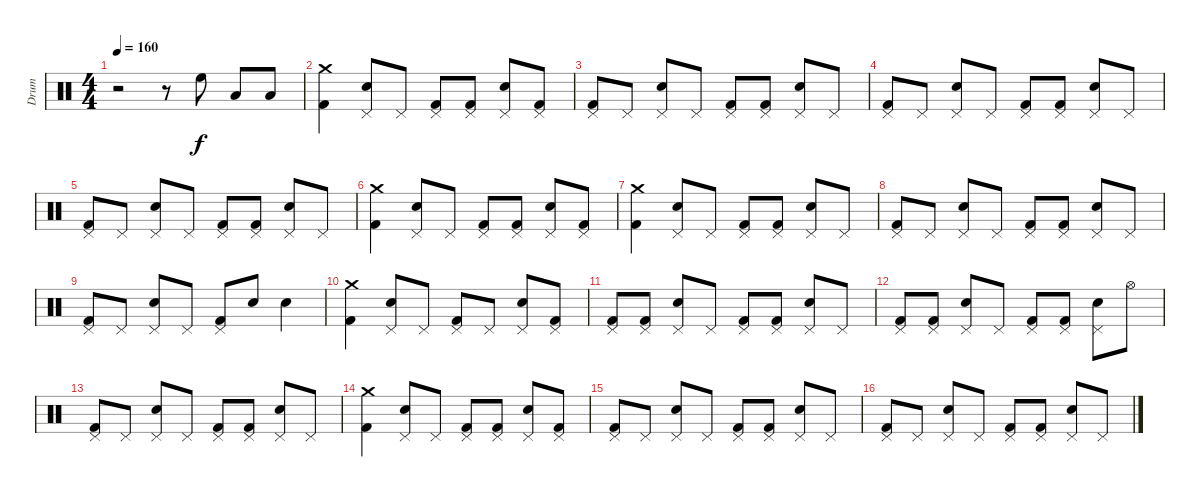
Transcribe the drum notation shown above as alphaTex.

\track ("Drum" "Drum") {instrument percussion}
\staff {score}
\articulation defaults
\ts (4 4)
\tempo 160
\clef neutral
\ks c
r.2{dy f} r.8 "High Floor Tom (hit)".8 "Low Tom (hit)".8 "Low Tom (hit)".8 |
("Crash medium (hit)" "Kick (hit) 2").4 ("Pedal Hi-Hat (hit)" "Electric Snare (hit)").8 "Pedal Hi-Hat (hit)".8 ("Pedal Hi-Hat (hit)" "Kick (hit) 2").8 ("Pedal Hi-Hat (hit)" "Kick (hit) 2").8 ("Pedal Hi-Hat (hit)" "Electric Snare (hit)").8 ("Pedal Hi-Hat (hit)" "Kick (hit) 2").8 |
("Pedal Hi-Hat (hit)" "Kick (hit) 2").8 "Pedal Hi-Hat (hit)".8 ("Pedal Hi-Hat (hit)" "Electric Snare (hit)").8 "Pedal Hi-Hat (hit)".8 ("Pedal Hi-Hat (hit)" "Kick (hit) 2").8 ("Pedal Hi-Hat (hit)" "Kick (hit) 2").8 ("Pedal Hi-Hat (hit)" "Electric Snare (hit)").8 "Pedal Hi-Hat (hit)".8 |
("Pedal Hi-Hat (hit)" "Kick (hit) 2").8 "Pedal Hi-Hat (hit)".8 ("Pedal Hi-Hat (hit)" "Electric Snare (hit)").8 "Pedal Hi-Hat (hit)".8 ("Pedal Hi-Hat (hit)" "Kick (hit) 2").8 ("Pedal Hi-Hat (hit)" "Kick (hit) 2").8 ("Pedal Hi-Hat (hit)" "Electric Snare (hit)").8 "Pedal Hi-Hat (hit)".8 |
("Pedal Hi-Hat (hit)" "Kick (hit) 2").8 "Pedal Hi-Hat (hit)".8 ("Pedal Hi-Hat (hit)" "Electric Snare (hit)").8 "Pedal Hi-Hat (hit)".8 ("Pedal Hi-Hat (hit)" "Kick (hit) 2").8 ("Pedal Hi-Hat (hit)" "Kick (hit) 2").8 ("Pedal Hi-Hat (hit)" "Electric Snare (hit)").8 "Pedal Hi-Hat (hit)".8 |
("Crash medium (hit)" "Kick (hit) 2").4 ("Pedal Hi-Hat (hit)" "Electric Snare (hit)").8 "Pedal Hi-Hat (hit)".8 ("Pedal Hi-Hat (hit)" "Kick (hit) 2").8 ("Pedal Hi-Hat (hit)" "Kick (hit) 2").8 ("Pedal Hi-Hat (hit)" "Electric Snare (hit)").8 ("Pedal Hi-Hat (hit)" "Kick (hit) 2").8 |
("Crash medium (hit)" "Kick (hit) 2").4 ("Pedal Hi-Hat (hit)" "Electric Snare (hit)").8 "Pedal Hi-Hat (hit)".8 ("Pedal Hi-Hat (hit)" "Kick (hit) 2").8 ("Pedal Hi-Hat (hit)" "Kick (hit) 2").8 ("Pedal Hi-Hat (hit)" "Electric Snare (hit)").8 "Pedal Hi-Hat (hit)".8 |
("Pedal Hi-Hat (hit)" "Kick (hit) 2").8 "Pedal Hi-Hat (hit)".8 ("Pedal Hi-Hat (hit)" "Electric Snare (hit)").8 "Pedal Hi-Hat (hit)".8 ("Pedal Hi-Hat (hit)" "Kick (hit) 2").8 ("Pedal Hi-Hat (hit)" "Kick (hit) 2").8 ("Pedal Hi-Hat (hit)" "Electric Snare (hit)").8 "Pedal Hi-Hat (hit)".8 |
("Pedal Hi-Hat (hit)" "Kick (hit) 2").8 "Pedal Hi-Hat (hit)".8 ("Pedal Hi-Hat (hit)" "Electric Snare (hit)").8 "Pedal Hi-Hat (hit)".8 ("Pedal Hi-Hat (hit)" "Kick (hit) 2").8 "Snare (hit) 2".8 "Electric Snare (hit)".4 |
("Crash medium (hit)" "Kick (hit) 2").4 ("Pedal Hi-Hat (hit)" "Electric Snare (hit)").8 "Pedal Hi-Hat (hit)".8 ("Pedal Hi-Hat (hit)" "Kick (hit) 2").8 "Pedal Hi-Hat (hit)".8 ("Pedal Hi-Hat (hit)" "Electric Snare (hit)").8 ("Pedal Hi-Hat (hit)" "Kick (hit) 2").8 |
("Pedal Hi-Hat (hit)" "Kick (hit) 2").8 ("Pedal Hi-Hat (hit)" "Kick (hit) 2").8 ("Pedal Hi-Hat (hit)" "Electric Snare (hit)").8 "Pedal Hi-Hat (hit)".8 ("Pedal Hi-Hat (hit)" "Kick (hit) 2").8 ("Pedal Hi-Hat (hit)" "Kick (hit) 2").8 ("Pedal Hi-Hat (hit)" "Electric Snare (hit)").8 "Pedal Hi-Hat (hit)".8 |
("Pedal Hi-Hat (hit)" "Kick (hit) 2").8 ("Pedal Hi-Hat (hit)" "Kick (hit) 2").8 ("Pedal Hi-Hat (hit)" "Electric Snare (hit)").8 "Pedal Hi-Hat (hit)".8 ("Pedal Hi-Hat (hit)" "Kick (hit) 2").8 ("Pedal Hi-Hat (hit)" "Kick (hit) 2").8 ("Pedal Hi-Hat (hit)" "Electric Snare (hit)").8 "Hi-Hat (open)".8 |
("Pedal Hi-Hat (hit)" "Kick (hit) 2").8 "Pedal Hi-Hat (hit)".8 ("Pedal Hi-Hat (hit)" "Electric Snare (hit)").8 "Pedal Hi-Hat (hit)".8 ("Pedal Hi-Hat (hit)" "Kick (hit) 2").8 ("Pedal Hi-Hat (hit)" "Kick (hit) 2").8 ("Pedal Hi-Hat (hit)" "Electric Snare (hit)").8 "Pedal Hi-Hat (hit)".8 |
("Crash medium (hit)" "Kick (hit) 2").4 ("Pedal Hi-Hat (hit)" "Electric Snare (hit)").8 "Pedal Hi-Hat (hit)".8 ("Pedal Hi-Hat (hit)" "Kick (hit) 2").8 ("Pedal Hi-Hat (hit)" "Kick (hit) 2").8 ("Pedal Hi-Hat (hit)" "Electric Snare (hit)").8 ("Pedal Hi-Hat (hit)" "Kick (hit) 2").8 |
("Pedal Hi-Hat (hit)" "Kick (hit) 2").8 "Pedal Hi-Hat (hit)".8 ("Pedal Hi-Hat (hit)" "Electric Snare (hit)").8 "Pedal Hi-Hat (hit)".8 ("Pedal Hi-Hat (hit)" "Kick (hit) 2").8 ("Pedal Hi-Hat (hit)" "Kick (hit) 2").8 ("Pedal Hi-Hat (hit)" "Electric Snare (hit)").8 "Pedal Hi-Hat (hit)".8 |
("Pedal Hi-Hat (hit)" "Kick (hit) 2").8 "Pedal Hi-Hat (hit)".8 ("Pedal Hi-Hat (hit)" "Electric Snare (hit)").8 "Pedal Hi-Hat (hit)".8 ("Pedal Hi-Hat (hit)" "Kick (hit) 2").8 ("Pedal Hi-Hat (hit)" "Kick (hit) 2").8 ("Pedal Hi-Hat (hit)" "Electric Snare (hit)").8 "Pedal Hi-Hat (hit)".8
